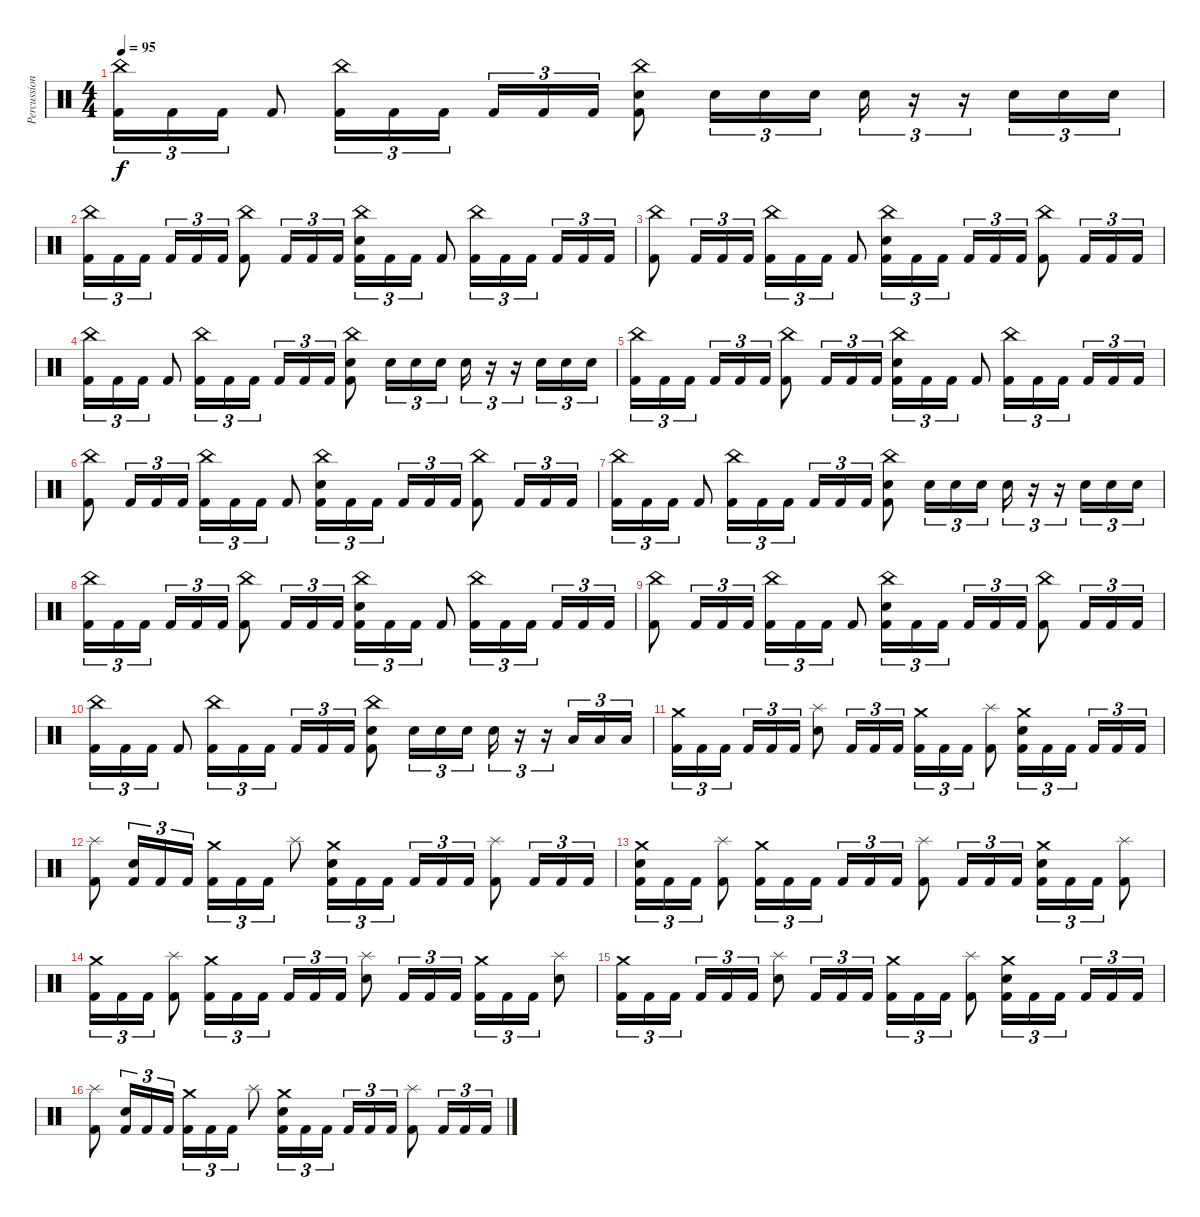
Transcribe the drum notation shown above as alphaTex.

\track ("Percussion" "Percussion") {instrument percussion}
\staff {score}
\articulation defaults
\ts (4 4)
\tempo 95
\clef neutral
\ks c
("China (hit)" "Kick (hit) 2").16{tu (3 2) dy f} "Kick (hit) 2".16{tu (3 2)} "Kick (hit) 2".16{tu (3 2)} "Kick (hit) 2".8 ("China (hit)" "Kick (hit) 2").16{tu (3 2)} "Kick (hit) 2".16{tu (3 2)} "Kick (hit) 2".16{tu (3 2) beam splitsecondary} "Kick (hit) 2".16{tu (3 2)} "Kick (hit) 2".16{tu (3 2)} "Kick (hit) 2".16{tu (3 2)} ("China (hit)" "Electric Snare (hit)" "Kick (hit) 2").8 "Electric Snare (hit)".16{tu (3 2)} "Electric Snare (hit)".16{tu (3 2)} "Electric Snare (hit)".16{tu (3 2)} "Electric Snare (hit)".16{tu (3 2)} r.16{tu (3 2)} r.16{tu (3 2)} "Electric Snare (hit)".16{tu (3 2)} "Electric Snare (hit)".16{tu (3 2)} "Electric Snare (hit)".16{tu (3 2)} |
("China (hit)" "Kick (hit) 2").16{tu (3 2)} "Kick (hit) 2".16{tu (3 2)} "Kick (hit) 2".16{tu (3 2) beam splitsecondary} "Kick (hit) 2".16{tu (3 2)} "Kick (hit) 2".16{tu (3 2)} "Kick (hit) 2".16{tu (3 2)} ("China (hit)" "Kick (hit) 2").8 "Kick (hit) 2".16{tu (3 2)} "Kick (hit) 2".16{tu (3 2)} "Kick (hit) 2".16{tu (3 2)} ("China (hit)" "Electric Snare (hit)" "Kick (hit) 2").16{tu (3 2)} "Kick (hit) 2".16{tu (3 2)} "Kick (hit) 2".16{tu (3 2)} "Kick (hit) 2".8 ("China (hit)" "Kick (hit) 2").16{tu (3 2)} "Kick (hit) 2".16{tu (3 2)} "Kick (hit) 2".16{tu (3 2) beam splitsecondary} "Kick (hit) 2".16{tu (3 2)} "Kick (hit) 2".16{tu (3 2)} "Kick (hit) 2".16{tu (3 2)} |
("China (hit)" "Kick (hit) 2").8 "Kick (hit) 2".16{tu (3 2)} "Kick (hit) 2".16{tu (3 2)} "Kick (hit) 2".16{tu (3 2)} ("China (hit)" "Kick (hit) 2").16{tu (3 2)} "Kick (hit) 2".16{tu (3 2)} "Kick (hit) 2".16{tu (3 2)} "Kick (hit) 2".8 ("China (hit)" "Electric Snare (hit)" "Kick (hit) 2").16{tu (3 2)} "Kick (hit) 2".16{tu (3 2)} "Kick (hit) 2".16{tu (3 2) beam splitsecondary} "Kick (hit) 2".16{tu (3 2)} "Kick (hit) 2".16{tu (3 2)} "Kick (hit) 2".16{tu (3 2)} ("China (hit)" "Kick (hit) 2").8 "Kick (hit) 2".16{tu (3 2)} "Kick (hit) 2".16{tu (3 2)} "Kick (hit) 2".16{tu (3 2)} |
("China (hit)" "Kick (hit) 2").16{tu (3 2)} "Kick (hit) 2".16{tu (3 2)} "Kick (hit) 2".16{tu (3 2)} "Kick (hit) 2".8 ("China (hit)" "Kick (hit) 2").16{tu (3 2)} "Kick (hit) 2".16{tu (3 2)} "Kick (hit) 2".16{tu (3 2) beam splitsecondary} "Kick (hit) 2".16{tu (3 2)} "Kick (hit) 2".16{tu (3 2)} "Kick (hit) 2".16{tu (3 2)} ("China (hit)" "Electric Snare (hit)" "Kick (hit) 2").8 "Electric Snare (hit)".16{tu (3 2)} "Electric Snare (hit)".16{tu (3 2)} "Electric Snare (hit)".16{tu (3 2)} "Electric Snare (hit)".16{tu (3 2)} r.16{tu (3 2)} r.16{tu (3 2)} "Electric Snare (hit)".16{tu (3 2)} "Electric Snare (hit)".16{tu (3 2)} "Electric Snare (hit)".16{tu (3 2)} |
("China (hit)" "Kick (hit) 2").16{tu (3 2)} "Kick (hit) 2".16{tu (3 2)} "Kick (hit) 2".16{tu (3 2) beam splitsecondary} "Kick (hit) 2".16{tu (3 2)} "Kick (hit) 2".16{tu (3 2)} "Kick (hit) 2".16{tu (3 2)} ("China (hit)" "Kick (hit) 2").8 "Kick (hit) 2".16{tu (3 2)} "Kick (hit) 2".16{tu (3 2)} "Kick (hit) 2".16{tu (3 2)} ("China (hit)" "Electric Snare (hit)" "Kick (hit) 2").16{tu (3 2)} "Kick (hit) 2".16{tu (3 2)} "Kick (hit) 2".16{tu (3 2)} "Kick (hit) 2".8 ("China (hit)" "Kick (hit) 2").16{tu (3 2)} "Kick (hit) 2".16{tu (3 2)} "Kick (hit) 2".16{tu (3 2) beam splitsecondary} "Kick (hit) 2".16{tu (3 2)} "Kick (hit) 2".16{tu (3 2)} "Kick (hit) 2".16{tu (3 2)} |
("China (hit)" "Kick (hit) 2").8 "Kick (hit) 2".16{tu (3 2)} "Kick (hit) 2".16{tu (3 2)} "Kick (hit) 2".16{tu (3 2)} ("China (hit)" "Kick (hit) 2").16{tu (3 2)} "Kick (hit) 2".16{tu (3 2)} "Kick (hit) 2".16{tu (3 2)} "Kick (hit) 2".8 ("China (hit)" "Electric Snare (hit)" "Kick (hit) 2").16{tu (3 2)} "Kick (hit) 2".16{tu (3 2)} "Kick (hit) 2".16{tu (3 2) beam splitsecondary} "Kick (hit) 2".16{tu (3 2)} "Kick (hit) 2".16{tu (3 2)} "Kick (hit) 2".16{tu (3 2)} ("China (hit)" "Kick (hit) 2").8 "Kick (hit) 2".16{tu (3 2)} "Kick (hit) 2".16{tu (3 2)} "Kick (hit) 2".16{tu (3 2)} |
("China (hit)" "Kick (hit) 2").16{tu (3 2)} "Kick (hit) 2".16{tu (3 2)} "Kick (hit) 2".16{tu (3 2)} "Kick (hit) 2".8 ("China (hit)" "Kick (hit) 2").16{tu (3 2)} "Kick (hit) 2".16{tu (3 2)} "Kick (hit) 2".16{tu (3 2) beam splitsecondary} "Kick (hit) 2".16{tu (3 2)} "Kick (hit) 2".16{tu (3 2)} "Kick (hit) 2".16{tu (3 2)} ("China (hit)" "Electric Snare (hit)" "Kick (hit) 2").8 "Electric Snare (hit)".16{tu (3 2)} "Electric Snare (hit)".16{tu (3 2)} "Electric Snare (hit)".16{tu (3 2)} "Electric Snare (hit)".16{tu (3 2)} r.16{tu (3 2)} r.16{tu (3 2)} "Electric Snare (hit)".16{tu (3 2)} "Electric Snare (hit)".16{tu (3 2)} "Electric Snare (hit)".16{tu (3 2)} |
("China (hit)" "Kick (hit) 2").16{tu (3 2)} "Kick (hit) 2".16{tu (3 2)} "Kick (hit) 2".16{tu (3 2) beam splitsecondary} "Kick (hit) 2".16{tu (3 2)} "Kick (hit) 2".16{tu (3 2)} "Kick (hit) 2".16{tu (3 2)} ("China (hit)" "Kick (hit) 2").8 "Kick (hit) 2".16{tu (3 2)} "Kick (hit) 2".16{tu (3 2)} "Kick (hit) 2".16{tu (3 2)} ("China (hit)" "Electric Snare (hit)" "Kick (hit) 2").16{tu (3 2)} "Kick (hit) 2".16{tu (3 2)} "Kick (hit) 2".16{tu (3 2)} "Kick (hit) 2".8 ("China (hit)" "Kick (hit) 2").16{tu (3 2)} "Kick (hit) 2".16{tu (3 2)} "Kick (hit) 2".16{tu (3 2) beam splitsecondary} "Kick (hit) 2".16{tu (3 2)} "Kick (hit) 2".16{tu (3 2)} "Kick (hit) 2".16{tu (3 2)} |
("China (hit)" "Kick (hit) 2").8 "Kick (hit) 2".16{tu (3 2)} "Kick (hit) 2".16{tu (3 2)} "Kick (hit) 2".16{tu (3 2)} ("China (hit)" "Kick (hit) 2").16{tu (3 2)} "Kick (hit) 2".16{tu (3 2)} "Kick (hit) 2".16{tu (3 2)} "Kick (hit) 2".8 ("China (hit)" "Electric Snare (hit)" "Kick (hit) 2").16{tu (3 2)} "Kick (hit) 2".16{tu (3 2)} "Kick (hit) 2".16{tu (3 2) beam splitsecondary} "Kick (hit) 2".16{tu (3 2)} "Kick (hit) 2".16{tu (3 2)} "Kick (hit) 2".16{tu (3 2)} ("China (hit)" "Kick (hit) 2").8 "Kick (hit) 2".16{tu (3 2)} "Kick (hit) 2".16{tu (3 2)} "Kick (hit) 2".16{tu (3 2)} |
("China (hit)" "Kick (hit) 2").16{tu (3 2)} "Kick (hit) 2".16{tu (3 2)} "Kick (hit) 2".16{tu (3 2)} "Kick (hit) 2".8 ("China (hit)" "Kick (hit) 2").16{tu (3 2)} "Kick (hit) 2".16{tu (3 2)} "Kick (hit) 2".16{tu (3 2) beam splitsecondary} "Kick (hit) 2".16{tu (3 2)} "Kick (hit) 2".16{tu (3 2)} "Kick (hit) 2".16{tu (3 2)} ("China (hit)" "Electric Snare (hit)" "Kick (hit) 2").8 "Electric Snare (hit)".16{tu (3 2)} "Electric Snare (hit)".16{tu (3 2)} "Electric Snare (hit)".16{tu (3 2)} "Electric Snare (hit)".16{tu (3 2)} r.16{tu (3 2)} r.16{tu (3 2)} "Low Tom (hit)".16{tu (3 2)} "Low Tom (hit)".16{tu (3 2)} "Low Tom (hit)".16{tu (3 2)} |
("Crash medium (hit)" "Kick (hit) 2").16{tu (3 2)} "Kick (hit) 2".16{tu (3 2)} "Kick (hit) 2".16{tu (3 2) beam splitsecondary} "Kick (hit) 2".16{tu (3 2)} "Kick (hit) 2".16{tu (3 2)} "Kick (hit) 2".16{tu (3 2)} ("Splash (hit)" "Electric Snare (hit)").8 "Kick (hit) 2".16{tu (3 2)} "Kick (hit) 2".16{tu (3 2)} "Kick (hit) 2".16{tu (3 2)} ("Crash medium (hit)" "Kick (hit) 2").16{tu (3 2)} "Kick (hit) 2".16{tu (3 2)} "Kick (hit) 2".16{tu (3 2)} ("Splash (hit)" "Kick (hit) 2").8 ("Crash medium (hit)" "Electric Snare (hit)" "Kick (hit) 2").16{tu (3 2)} "Kick (hit) 2".16{tu (3 2)} "Kick (hit) 2".16{tu (3 2) beam splitsecondary} "Kick (hit) 2".16{tu (3 2)} "Kick (hit) 2".16{tu (3 2)} "Kick (hit) 2".16{tu (3 2)} |
("Splash (hit)" "Kick (hit) 2").8 ("Electric Snare (hit)" "Kick (hit) 2").16{tu (3 2)} "Kick (hit) 2".16{tu (3 2)} "Kick (hit) 2".16{tu (3 2)} ("Crash medium (hit)" "Kick (hit) 2").16{tu (3 2)} "Kick (hit) 2".16{tu (3 2)} "Kick (hit) 2".16{tu (3 2)} "Splash (hit)".8 ("Crash medium (hit)" "Electric Snare (hit)" "Kick (hit) 2").16{tu (3 2)} "Kick (hit) 2".16{tu (3 2)} "Kick (hit) 2".16{tu (3 2) beam splitsecondary} "Kick (hit) 2".16{tu (3 2)} "Kick (hit) 2".16{tu (3 2)} "Kick (hit) 2".16{tu (3 2)} ("Splash (hit)" "Kick (hit) 2").8 "Kick (hit) 2".16{tu (3 2)} "Kick (hit) 2".16{tu (3 2)} "Kick (hit) 2".16{tu (3 2)} |
("Crash medium (hit)" "Electric Snare (hit)" "Kick (hit) 2").16{tu (3 2)} "Kick (hit) 2".16{tu (3 2)} "Kick (hit) 2".16{tu (3 2)} ("Splash (hit)" "Kick (hit) 2").8 ("Crash medium (hit)" "Kick (hit) 2").16{tu (3 2)} "Kick (hit) 2".16{tu (3 2)} "Kick (hit) 2".16{tu (3 2) beam splitsecondary} "Kick (hit) 2".16{tu (3 2)} "Kick (hit) 2".16{tu (3 2)} "Kick (hit) 2".16{tu (3 2)} ("Splash (hit)" "Kick (hit) 2").8 "Kick (hit) 2".16{tu (3 2)} "Kick (hit) 2".16{tu (3 2)} "Kick (hit) 2".16{tu (3 2)} ("Crash medium (hit)" "Electric Snare (hit)" "Kick (hit) 2").16{tu (3 2)} "Kick (hit) 2".16{tu (3 2)} "Kick (hit) 2".16{tu (3 2)} ("Splash (hit)" "Kick (hit) 2").8 |
("Crash medium (hit)" "Kick (hit) 2").16{tu (3 2)} "Kick (hit) 2".16{tu (3 2)} "Kick (hit) 2".16{tu (3 2)} ("Splash (hit)" "Kick (hit) 2").8 ("Crash medium (hit)" "Kick (hit) 2").16{tu (3 2)} "Kick (hit) 2".16{tu (3 2)} "Kick (hit) 2".16{tu (3 2) beam splitsecondary} "Kick (hit) 2".16{tu (3 2)} "Kick (hit) 2".16{tu (3 2)} "Kick (hit) 2".16{tu (3 2)} ("Splash (hit)" "Electric Snare (hit)").8 "Kick (hit) 2".16{tu (3 2)} "Kick (hit) 2".16{tu (3 2)} "Kick (hit) 2".16{tu (3 2)} ("Crash medium (hit)" "Kick (hit) 2").16{tu (3 2)} "Kick (hit) 2".16{tu (3 2)} "Kick (hit) 2".16{tu (3 2)} ("Splash (hit)" "Electric Snare (hit)").8 |
("Crash medium (hit)" "Kick (hit) 2").16{tu (3 2)} "Kick (hit) 2".16{tu (3 2)} "Kick (hit) 2".16{tu (3 2) beam splitsecondary} "Kick (hit) 2".16{tu (3 2)} "Kick (hit) 2".16{tu (3 2)} "Kick (hit) 2".16{tu (3 2)} ("Splash (hit)" "Electric Snare (hit)").8 "Kick (hit) 2".16{tu (3 2)} "Kick (hit) 2".16{tu (3 2)} "Kick (hit) 2".16{tu (3 2)} ("Crash medium (hit)" "Kick (hit) 2").16{tu (3 2)} "Kick (hit) 2".16{tu (3 2)} "Kick (hit) 2".16{tu (3 2)} ("Splash (hit)" "Kick (hit) 2").8 ("Crash medium (hit)" "Electric Snare (hit)" "Kick (hit) 2").16{tu (3 2)} "Kick (hit) 2".16{tu (3 2)} "Kick (hit) 2".16{tu (3 2) beam splitsecondary} "Kick (hit) 2".16{tu (3 2)} "Kick (hit) 2".16{tu (3 2)} "Kick (hit) 2".16{tu (3 2)} |
("Splash (hit)" "Kick (hit) 2").8 ("Electric Snare (hit)" "Kick (hit) 2").16{tu (3 2)} "Kick (hit) 2".16{tu (3 2)} "Kick (hit) 2".16{tu (3 2)} ("Crash medium (hit)" "Kick (hit) 2").16{tu (3 2)} "Kick (hit) 2".16{tu (3 2)} "Kick (hit) 2".16{tu (3 2)} "Splash (hit)".8 ("Crash medium (hit)" "Electric Snare (hit)" "Kick (hit) 2").16{tu (3 2)} "Kick (hit) 2".16{tu (3 2)} "Kick (hit) 2".16{tu (3 2) beam splitsecondary} "Kick (hit) 2".16{tu (3 2)} "Kick (hit) 2".16{tu (3 2)} "Kick (hit) 2".16{tu (3 2)} ("Splash (hit)" "Kick (hit) 2").8 "Kick (hit) 2".16{tu (3 2)} "Kick (hit) 2".16{tu (3 2)} "Kick (hit) 2".16{tu (3 2)}
